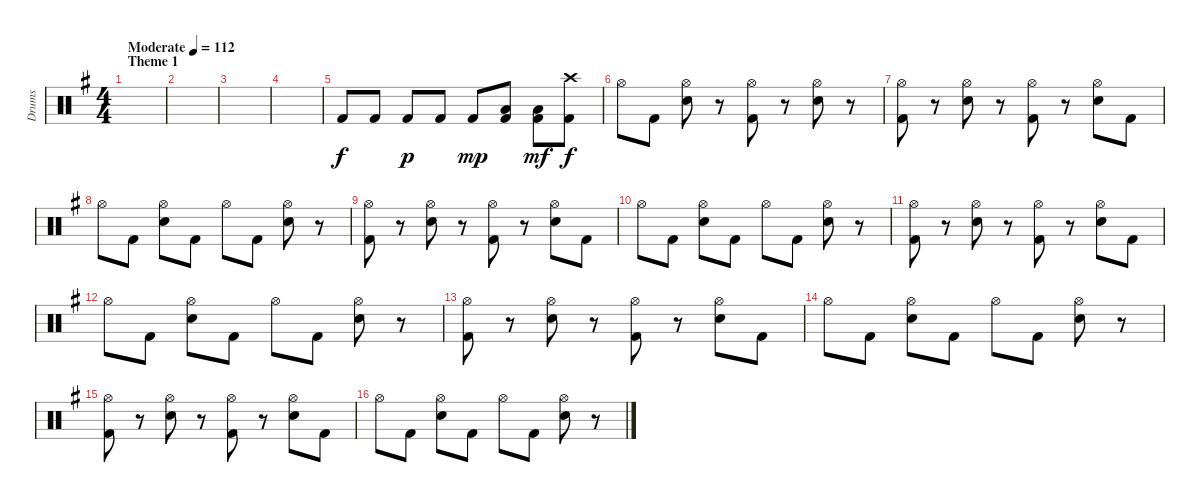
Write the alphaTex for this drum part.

\track ("Drums" "Drums") {instrument percussion}
\staff {score}
\articulation defaults
\ts (4 4)
\section ("" "Theme 1")
\tempo (112 "Moderate")
\clef neutral
\ks eminor
|
|
|
|
"Kick (hit) 2".8 "Kick (hit) 2".8 "Kick (hit) 2".8{dy p} "Kick (hit) 2".8 "Kick (hit) 2".8{dy mp} ("Low Tom (hit)" "Kick (hit) 2").8 ("Low Tom (hit)" "Kick (hit) 2").8{dy mf} ("Crash high (hit)" "Kick (hit) 2").8{dy f} |
"Hi-Hat (open)".8 "Kick (hit) 2".8 ("Hi-Hat (open)" "Electric Snare (hit)").8 r.8 ("Hi-Hat (open)" "Kick (hit) 2").8 r.8 ("Hi-Hat (open)" "Electric Snare (hit)").8 r.8 |
("Hi-Hat (open)" "Kick (hit) 2").8 r.8 ("Hi-Hat (open)" "Electric Snare (hit)").8 r.8 ("Hi-Hat (open)" "Kick (hit) 2").8 r.8 ("Hi-Hat (open)" "Electric Snare (hit)").8 "Kick (hit) 2".8 |
"Hi-Hat (open)".8 "Kick (hit) 2".8 ("Hi-Hat (open)" "Electric Snare (hit)").8 "Kick (hit) 2".8 "Hi-Hat (open)".8 "Kick (hit) 2".8 ("Hi-Hat (open)" "Electric Snare (hit)").8 r.8 |
("Hi-Hat (open)" "Kick (hit) 2").8 r.8 ("Hi-Hat (open)" "Electric Snare (hit)").8 r.8 ("Hi-Hat (open)" "Kick (hit) 2").8 r.8 ("Hi-Hat (open)" "Electric Snare (hit)").8 "Kick (hit) 2".8 |
"Hi-Hat (open)".8 "Kick (hit) 2".8 ("Hi-Hat (open)" "Electric Snare (hit)").8 "Kick (hit) 2".8 "Hi-Hat (open)".8 "Kick (hit) 2".8 ("Hi-Hat (open)" "Electric Snare (hit)").8 r.8 |
("Hi-Hat (open)" "Kick (hit) 2").8 r.8 ("Hi-Hat (open)" "Electric Snare (hit)").8 r.8 ("Hi-Hat (open)" "Kick (hit) 2").8 r.8 ("Hi-Hat (open)" "Electric Snare (hit)").8 "Kick (hit) 2".8 |
"Hi-Hat (open)".8 "Kick (hit) 2".8 ("Hi-Hat (open)" "Electric Snare (hit)").8 "Kick (hit) 2".8 "Hi-Hat (open)".8 "Kick (hit) 2".8 ("Hi-Hat (open)" "Electric Snare (hit)").8 r.8 |
("Hi-Hat (open)" "Kick (hit) 2").8 r.8 ("Hi-Hat (open)" "Electric Snare (hit)").8 r.8 ("Hi-Hat (open)" "Kick (hit) 2").8 r.8 ("Hi-Hat (open)" "Electric Snare (hit)").8 "Kick (hit) 2".8 |
"Hi-Hat (open)".8 "Kick (hit) 2".8 ("Hi-Hat (open)" "Electric Snare (hit)").8 "Kick (hit) 2".8 "Hi-Hat (open)".8 "Kick (hit) 2".8 ("Hi-Hat (open)" "Electric Snare (hit)").8 r.8 |
("Hi-Hat (open)" "Kick (hit) 2").8 r.8 ("Hi-Hat (open)" "Electric Snare (hit)").8 r.8 ("Hi-Hat (open)" "Kick (hit) 2").8 r.8 ("Hi-Hat (open)" "Electric Snare (hit)").8 "Kick (hit) 2".8 |
"Hi-Hat (open)".8 "Kick (hit) 2".8 ("Hi-Hat (open)" "Electric Snare (hit)").8 "Kick (hit) 2".8 "Hi-Hat (open)".8 "Kick (hit) 2".8 ("Hi-Hat (open)" "Electric Snare (hit)").8 r.8
